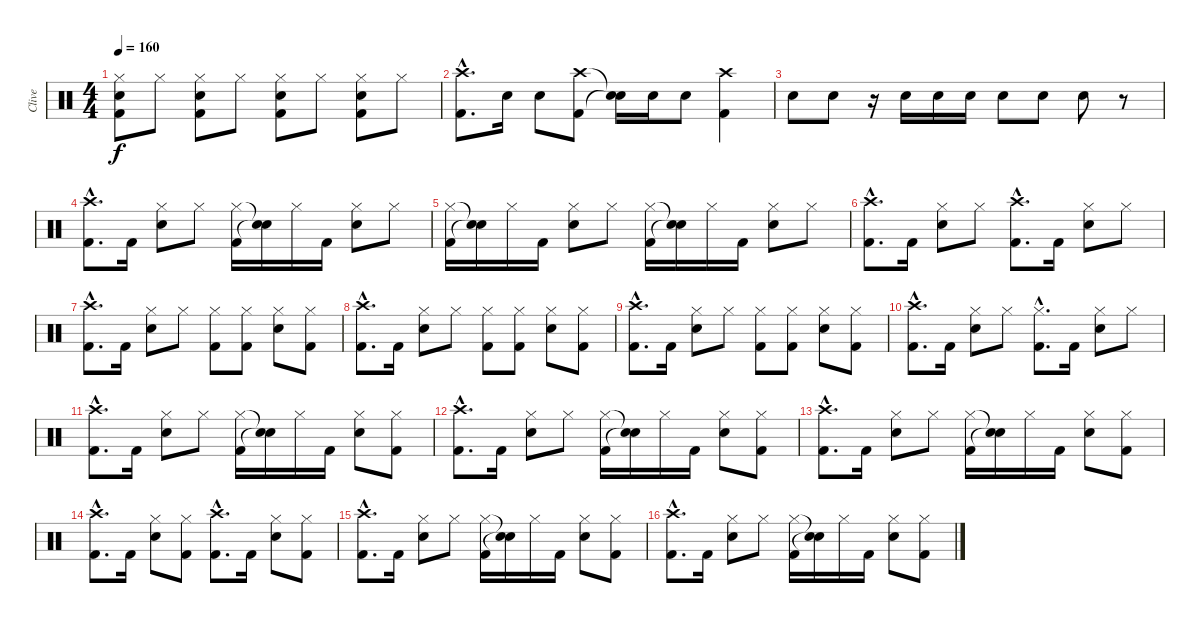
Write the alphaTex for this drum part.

\track ("Clive" "Clive") {instrument percussion}
\staff {score}
\articulation defaults
\ts (4 4)
\tempo 160
\clef neutral
\ks c
("Hi-Hat (closed)" "Snare (hit) 2" "Kick (hit) 2").8{dy f} "Hi-Hat (closed)".8 ("Hi-Hat (closed)" "Snare (hit) 2" "Kick (hit) 2").8 "Hi-Hat (closed)".8 ("Hi-Hat (closed)" "Snare (hit) 2" "Kick (hit) 2").8 "Hi-Hat (closed)".8 ("Hi-Hat (closed)" "Snare (hit) 2" "Kick (hit) 2").8 "Hi-Hat (closed)".8 |
("Crash high (hit)"{hac} "Kick (hit) 2"{hac}).8{d} "Snare (hit) 2".16 "Snare (hit) 2".8 ("Crash high (hit)" "Kick (hit) 2").8 ("Snare (hit)"{t} "Snare (hit)"{t}).16 "Snare (hit) 2".16 "Snare (hit) 2".8 ("Crash high (hit)" "Kick (hit) 2").4 |
"Snare (hit) 2".8 "Snare (hit) 2".8 r.16 "Snare (hit) 2".16 "Snare (hit) 2".16 "Snare (hit) 2".16 "Snare (hit) 2".8 "Snare (hit) 2".8 "Snare (hit) 2".8 r.8 |
("Crash high (hit)"{hac} "Kick (hit) 2"{hac}).8{d} "Kick (hit) 2".16 ("Hi-Hat (closed)" "Snare (hit) 2").8 "Hi-Hat (closed)".8 ("Hi-Hat (closed)" "Kick (hit) 2").16 ("Snare (hit)"{t} "Snare (hit)"{t}).16 "Hi-Hat (closed)".16 "Kick (hit) 2".16 ("Hi-Hat (closed)" "Snare (hit) 2").8 "Hi-Hat (closed)".8 |
("Hi-Hat (closed)" "Kick (hit) 2").16 ("Snare (hit)"{t} "Snare (hit)"{t}).16 "Hi-Hat (closed)".16 "Kick (hit) 2".16 ("Hi-Hat (closed)" "Snare (hit) 2").8 "Hi-Hat (closed)".8 ("Hi-Hat (closed)" "Kick (hit) 2").16 ("Snare (hit)"{t} "Snare (hit)"{t}).16 "Hi-Hat (closed)".16 "Kick (hit) 2".16 ("Hi-Hat (closed)" "Snare (hit) 2").8 "Hi-Hat (closed)".8 |
("Crash high (hit)"{hac} "Kick (hit) 2"{hac}).8{d} "Kick (hit) 2".16 ("Hi-Hat (closed)" "Snare (hit) 2").8 "Hi-Hat (closed)".8 ("Crash high (hit)"{hac} "Kick (hit) 2"{hac}).8{d} "Kick (hit) 2".16 ("Hi-Hat (closed)" "Snare (hit) 2").8 "Hi-Hat (closed)".8 |
("Crash high (hit)"{hac} "Kick (hit) 2"{hac}).8{d} "Kick (hit) 2".16 ("Hi-Hat (closed)" "Snare (hit) 2").8 "Hi-Hat (closed)".8 ("Hi-Hat (closed)" "Kick (hit) 2").8 ("Hi-Hat (closed)" "Kick (hit) 2").8 ("Hi-Hat (closed)" "Snare (hit) 2").8 ("Hi-Hat (closed)" "Kick (hit) 2").8 |
("Crash high (hit)"{hac} "Kick (hit) 2"{hac}).8{d} "Kick (hit) 2".16 ("Hi-Hat (closed)" "Snare (hit) 2").8 "Hi-Hat (closed)".8 ("Hi-Hat (closed)" "Kick (hit) 2").8 ("Hi-Hat (closed)" "Kick (hit) 2").8 ("Hi-Hat (closed)" "Snare (hit) 2").8 ("Hi-Hat (closed)" "Kick (hit) 2").8 |
("Crash high (hit)"{hac} "Kick (hit) 2"{hac}).8{d} "Kick (hit) 2".16 ("Hi-Hat (closed)" "Snare (hit) 2").8 "Hi-Hat (closed)".8 ("Hi-Hat (closed)" "Kick (hit) 2").8 ("Hi-Hat (closed)" "Kick (hit) 2").8 ("Hi-Hat (closed)" "Snare (hit) 2").8 ("Hi-Hat (closed)" "Kick (hit) 2").8 |
("Crash high (hit)"{hac} "Kick (hit) 2"{hac}).8{d} "Kick (hit) 2".16 ("Hi-Hat (closed)" "Snare (hit) 2").8 "Hi-Hat (closed)".8 ("Hi-Hat (closed)"{hac} "Kick (hit) 2"{hac}).8{d} "Kick (hit) 2".16 ("Hi-Hat (closed)" "Snare (hit) 2").8 "Hi-Hat (closed)".8 |
("Crash high (hit)"{hac} "Kick (hit) 2"{hac}).8{d} "Kick (hit) 2".16 ("Hi-Hat (closed)" "Snare (hit) 2").8 "Hi-Hat (closed)".8 ("Hi-Hat (closed)" "Kick (hit) 2").16 ("Snare (hit)"{t} "Snare (hit)"{t}).16 "Hi-Hat (closed)".16 "Kick (hit) 2".16 ("Hi-Hat (closed)" "Snare (hit) 2").8 ("Hi-Hat (closed)" "Kick (hit) 2").8 |
("Crash high (hit)"{hac} "Kick (hit) 2"{hac}).8{d} "Kick (hit) 2".16 ("Hi-Hat (closed)" "Snare (hit) 2").8 "Hi-Hat (closed)".8 ("Hi-Hat (closed)" "Kick (hit) 2").16 ("Snare (hit)"{t} "Snare (hit)"{t}).16 "Hi-Hat (closed)".16 "Kick (hit) 2".16 ("Hi-Hat (closed)" "Snare (hit) 2").8 ("Hi-Hat (closed)" "Kick (hit) 2").8 |
("Crash high (hit)"{hac} "Kick (hit) 2"{hac}).8{d} "Kick (hit) 2".16 ("Hi-Hat (closed)" "Snare (hit) 2").8 "Hi-Hat (closed)".8 ("Hi-Hat (closed)" "Kick (hit) 2").16 ("Snare (hit)"{t} "Snare (hit)"{t}).16 "Hi-Hat (closed)".16 "Kick (hit) 2".16 ("Hi-Hat (closed)" "Snare (hit) 2").8 ("Hi-Hat (closed)" "Kick (hit) 2").8 |
("Crash high (hit)"{hac} "Kick (hit) 2"{hac}).8{d} "Kick (hit) 2".16 ("Hi-Hat (closed)" "Snare (hit) 2").8 ("Hi-Hat (closed)" "Kick (hit) 2").8 ("Crash high (hit)"{hac} "Kick (hit) 2"{hac}).8{d} "Kick (hit) 2".16 ("Hi-Hat (closed)" "Snare (hit) 2").8 ("Hi-Hat (closed)" "Kick (hit) 2").8 |
("Crash high (hit)"{hac} "Kick (hit) 2"{hac}).8{d} "Kick (hit) 2".16 ("Hi-Hat (closed)" "Snare (hit) 2").8 "Hi-Hat (closed)".8 ("Hi-Hat (closed)" "Kick (hit) 2").16 ("Snare (hit)"{t} "Snare (hit)"{t}).16 "Hi-Hat (closed)".16 "Kick (hit) 2".16 ("Hi-Hat (closed)" "Snare (hit) 2").8 ("Hi-Hat (closed)" "Kick (hit) 2").8 |
("Crash high (hit)"{hac} "Kick (hit) 2"{hac}).8{d} "Kick (hit) 2".16 ("Hi-Hat (closed)" "Snare (hit) 2").8 "Hi-Hat (closed)".8 ("Hi-Hat (closed)" "Kick (hit) 2").16 ("Snare (hit)"{t} "Snare (hit)"{t}).16 "Hi-Hat (closed)".16 "Kick (hit) 2".16 ("Hi-Hat (closed)" "Snare (hit) 2").8 ("Hi-Hat (closed)" "Kick (hit) 2").8
